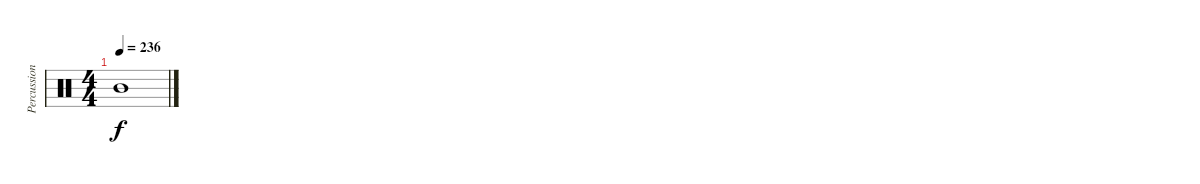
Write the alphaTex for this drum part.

\track ("Percussions" "Percussion") {instrument percussion}
\staff {score}
\articulation defaults
\ts (4 4)
\tempo 236
\clef neutral
\ks c "Mid Tom (hit)".1{dy f}
